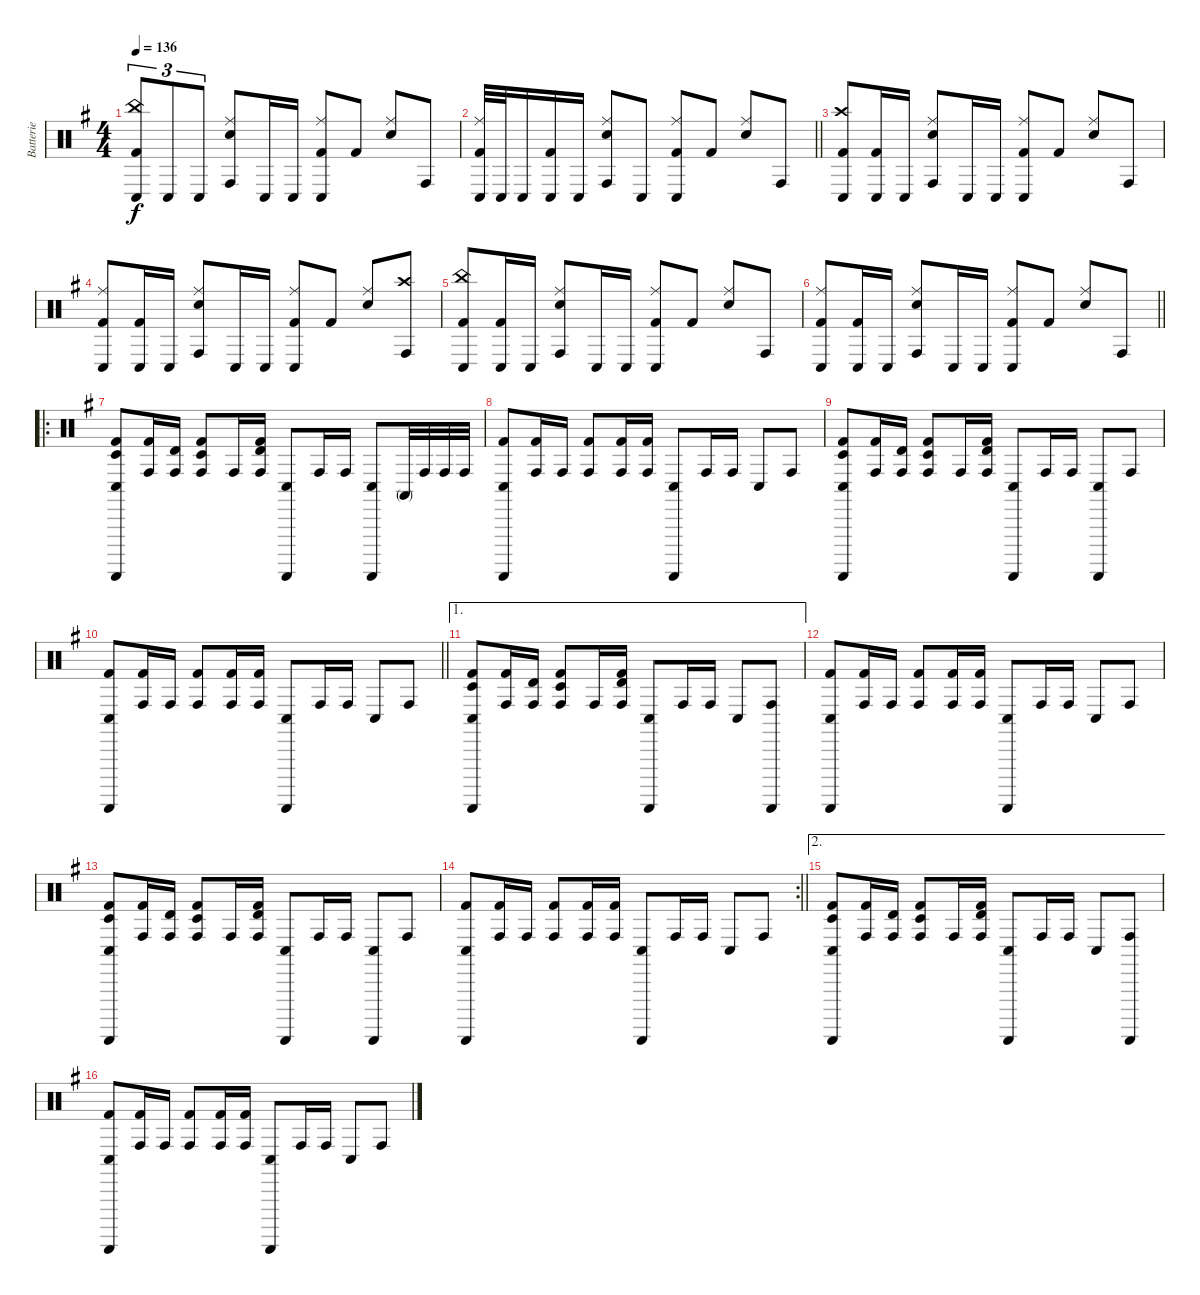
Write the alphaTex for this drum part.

\track ("Batterie" "Batterie") {instrument percussion}
\staff {score}
\articulation defaults
\ts (4 4)
\tempo 136
\clef neutral
\ks g
("China (hit)" "Conga low (hit)" "Kick (hit) 2").8{tu (3 2) dy f} "Conga low (hit)".8{tu (3 2)} "Conga low (hit)".8{tu (3 2)} ("Ride (middle)" "Conga high (hit)" "Snare (hit) 2").8 "Conga low (hit)".16 "Conga low (hit)".16 ("Ride (middle)" "Conga low (hit)" "Kick (hit) 2").8 "Kick (hit) 2".8 ("Ride (middle)" "Snare (hit) 2").8 "Conga high (hit)".8 |
\barLineRight lightlight
("Ride (middle)" "Conga low (hit)" "Kick (hit) 2").32 "Conga low (hit)".32 "Conga low (hit)".16 ("Conga low (hit)" "Kick (hit) 2").16 "Conga low (hit)".16 ("Ride (middle)" "Conga high (hit)" "Snare (hit) 2").8 "Conga low (hit)".8 ("Ride (middle)" "Conga low (hit)" "Kick (hit) 2").8 "Kick (hit) 2".8 ("Ride (middle)" "Snare (hit) 2").8 "Conga high (hit)".8 |
("Crash high (hit)" "Conga low (hit)" "Kick (hit) 2").8 ("Conga low (hit)" "Kick (hit) 2").16 "Conga low (hit)".16 ("Ride (middle)" "Conga high (hit)" "Snare (hit) 2").8 "Conga low (hit)".16 "Conga low (hit)".16 ("Ride (middle)" "Conga low (hit)" "Kick (hit) 2").8 "Kick (hit) 2".8 ("Ride (middle)" "Snare (hit) 2").8 "Conga high (hit)".8 |
("Ride (middle)" "Conga low (hit)" "Kick (hit) 2").8 ("Conga low (hit)" "Kick (hit) 2").16 "Conga low (hit)".16 ("Ride (middle)" "Conga high (hit)" "Snare (hit) 2").8 "Conga low (hit)".16 "Conga low (hit)".16 ("Ride (middle)" "Conga low (hit)" "Kick (hit) 2").8 "Kick (hit) 2".8 ("Ride (middle)" "Snare (hit) 2").8 ("Crash high (hit)" "Conga high (hit)").8 |
("China (hit)" "Conga low (hit)" "Kick (hit) 2").8 ("Conga low (hit)" "Kick (hit) 2").16 "Conga low (hit)".16 ("Ride (middle)" "Conga high (hit)" "Snare (hit) 2").8 "Conga low (hit)".16 "Conga low (hit)".16 ("Ride (middle)" "Conga low (hit)" "Kick (hit) 2").8 "Kick (hit) 2".8 ("Ride (middle)" "Snare (hit) 2").8 "Conga high (hit)".8 |
\barLineRight lightlight
("Ride (middle)" "Conga low (hit)" "Kick (hit) 2").8 ("Conga low (hit)" "Kick (hit) 2").16 "Conga low (hit)".16 ("Ride (middle)" "Conga high (hit)" "Snare (hit) 2").8 "Conga low (hit)".16 "Conga low (hit)".16 ("Ride (middle)" "Conga low (hit)" "Kick (hit) 2").8 "Kick (hit) 2".8 ("Ride (middle)" "Snare (hit) 2").8 "Conga high (hit)".8 |
\ro
("Conga low (hit)" "Timbale low (hit)" "Guiro (scrap-return)" "Kick (hit) 2").8 ("Conga high (hit)" "Kick (hit) 2").16 ("Conga high (hit)" "Timbale high (hit)").16 ("Conga high (hit)" "Timbale low (hit)" "Kick (hit) 2").8 "Conga high (hit)".16 ("Conga high (hit)" "Timbale high (hit)" "Kick (hit) 2").16 ("Conga low (hit)" "Guiro (scrap-return)").8 "Conga high (hit)".16 "Conga high (hit)".16 ("Conga low (hit)" "Guiro (scrap-return)").8 "Conga high (mute)".32 "Conga high (hit)".32 "Conga high (hit)".32 "Conga high (hit)".32 |
("Conga low (hit)" "Guiro (scrap-return)" "Kick (hit) 2").8 ("Conga high (hit)" "Kick (hit) 2").16 "Conga high (hit)".16 ("Conga high (hit)" "Kick (hit) 2").8 ("Conga high (hit)" "Kick (hit) 2").16 ("Conga high (hit)" "Kick (hit) 2").16 ("Conga low (hit)" "Guiro (scrap-return)").8 "Conga high (hit)".16 "Conga high (hit)".16 "Conga low (hit)".8 "Conga high (hit)".8 |
("Conga low (hit)" "Timbale low (hit)" "Guiro (scrap-return)" "Kick (hit) 2").8 ("Conga high (hit)" "Kick (hit) 2").16 ("Conga high (hit)" "Timbale high (hit)").16 ("Conga high (hit)" "Timbale low (hit)" "Kick (hit) 2").8 "Conga high (hit)".16 ("Conga high (hit)" "Timbale high (hit)" "Kick (hit) 2").16 ("Conga low (hit)" "Guiro (scrap-return)").8 "Conga high (hit)".16 "Conga high (hit)".16 ("Conga low (hit)" "Guiro (scrap-return)").8 "Conga high (hit)".8 |
\barLineRight lightlight
("Conga low (hit)" "Guiro (scrap-return)" "Kick (hit) 2").8 ("Conga high (hit)" "Kick (hit) 2").16 "Conga high (hit)".16 ("Conga high (hit)" "Kick (hit) 2").8 ("Conga high (hit)" "Kick (hit) 2").16 ("Conga high (hit)" "Kick (hit) 2").16 ("Conga low (hit)" "Guiro (scrap-return)").8 "Conga high (hit)".16 "Conga high (hit)".16 "Conga low (hit)".8 "Conga high (hit)".8 |
\ae 1
("Conga low (hit)" "Timbale low (hit)" "Guiro (scrap-return)" "Kick (hit) 2").8 ("Conga high (hit)" "Kick (hit) 2").16 ("Conga high (hit)" "Timbale high (hit)").16 ("Conga high (hit)" "Timbale low (hit)" "Kick (hit) 2").8 "Conga high (hit)".16 ("Conga high (hit)" "Timbale high (hit)" "Kick (hit) 2").16 ("Conga low (hit)" "Guiro (scrap-return)").8 "Conga high (hit)".16 "Conga high (hit)".16 "Conga low (hit)".8 ("Conga high (hit)" "Guiro (scrap-return)").8 |
("Conga low (hit)" "Guiro (scrap-return)" "Kick (hit) 2").8 ("Conga high (hit)" "Kick (hit) 2").16 "Conga high (hit)".16 ("Conga high (hit)" "Kick (hit) 2").8 ("Conga high (hit)" "Kick (hit) 2").16 ("Conga high (hit)" "Kick (hit) 2").16 ("Conga low (hit)" "Guiro (scrap-return)").8 "Conga high (hit)".16 "Conga high (hit)".16 "Conga low (hit)".8 "Conga high (hit)".8 |
("Conga low (hit)" "Timbale low (hit)" "Guiro (scrap-return)" "Kick (hit) 2").8 ("Conga high (hit)" "Kick (hit) 2").16 ("Conga high (hit)" "Timbale high (hit)").16 ("Conga high (hit)" "Timbale low (hit)" "Kick (hit) 2").8 "Conga high (hit)".16 ("Conga high (hit)" "Timbale high (hit)" "Kick (hit) 2").16 ("Conga low (hit)" "Guiro (scrap-return)").8 "Conga high (hit)".16 "Conga high (hit)".16 ("Conga low (hit)" "Guiro (scrap-return)").8 "Conga high (hit)".8 |
\rc 2
\barLineRight lightlight
("Conga low (hit)" "Guiro (scrap-return)" "Kick (hit) 2").8 ("Conga high (hit)" "Kick (hit) 2").16 "Conga high (hit)".16 ("Conga high (hit)" "Kick (hit) 2").8 ("Conga high (hit)" "Kick (hit) 2").16 ("Conga high (hit)" "Kick (hit) 2").16 ("Conga low (hit)" "Guiro (scrap-return)").8 "Conga high (hit)".16 "Conga high (hit)".16 "Conga low (hit)".8 "Conga high (hit)".8 |
\ae 2
("Conga low (hit)" "Timbale low (hit)" "Guiro (scrap-return)" "Kick (hit) 2").8 ("Conga high (hit)" "Kick (hit) 2").16 ("Conga high (hit)" "Timbale high (hit)").16 ("Conga high (hit)" "Timbale low (hit)" "Kick (hit) 2").8 "Conga high (hit)".16 ("Conga high (hit)" "Timbale high (hit)" "Kick (hit) 2").16 ("Conga low (hit)" "Guiro (scrap-return)").8 "Conga high (hit)".16 "Conga high (hit)".16 "Conga low (hit)".8 ("Conga high (hit)" "Guiro (scrap-return)").8 |
("Conga low (hit)" "Guiro (scrap-return)" "Kick (hit) 2").8 ("Conga high (hit)" "Kick (hit) 2").16 "Conga high (hit)".16 ("Conga high (hit)" "Kick (hit) 2").8 ("Conga high (hit)" "Kick (hit) 2").16 ("Conga high (hit)" "Kick (hit) 2").16 ("Conga low (hit)" "Guiro (scrap-return)").8 "Conga high (hit)".16 "Conga high (hit)".16 "Conga low (hit)".8 "Conga high (hit)".8
